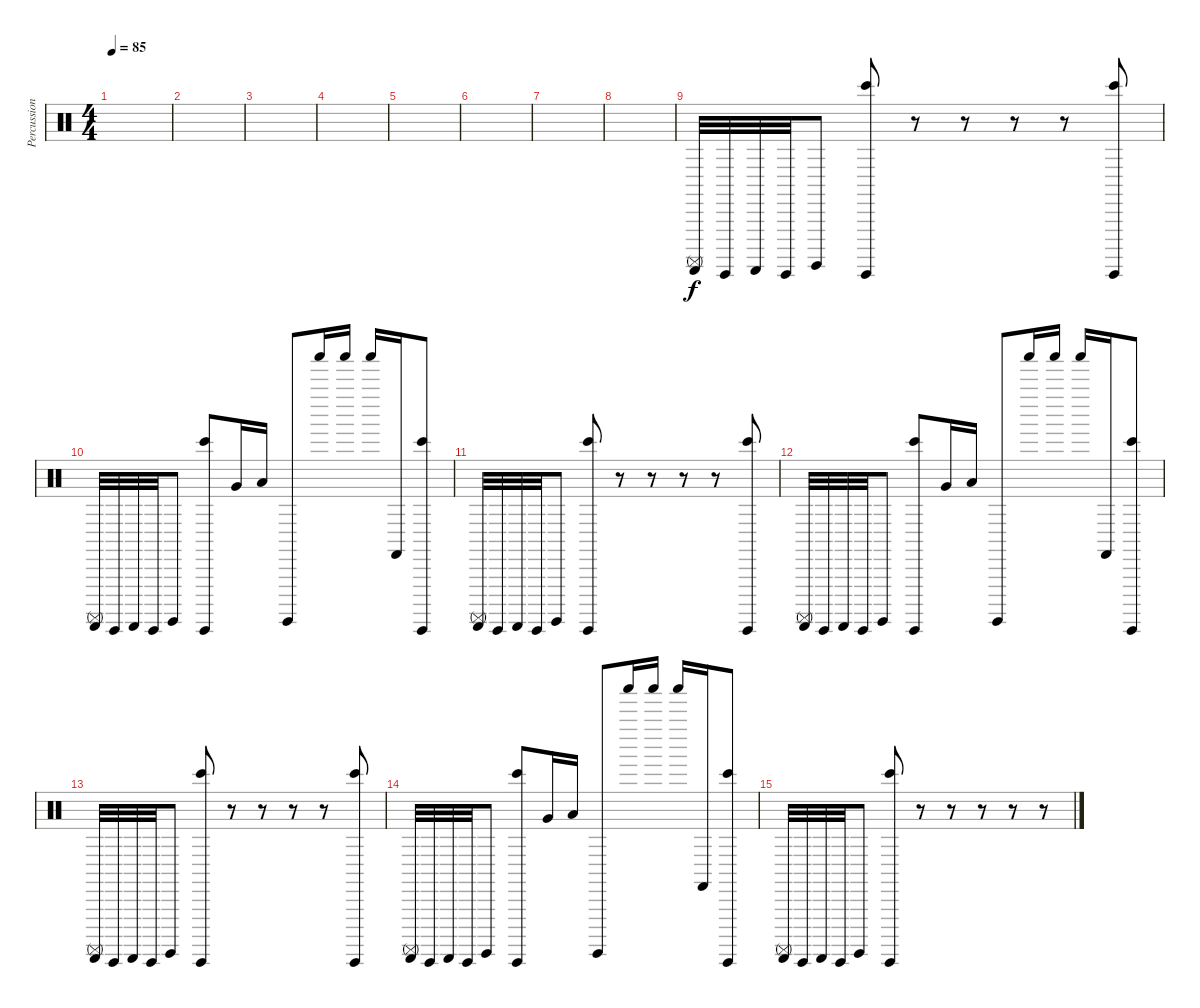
\track ("Percussion" "Percussion") {instrument percussion}
\staff {score}
\articulation defaults
\ts (4 4)
\tempo 85
\clef neutral
\ks c
|
|
|
|
|
|
|
|
("Guiro (scrap-return)" "Surdo (mute)").32 "Guiro (hit)".32 "Guiro (scrap-return)".32 "Guiro (hit)".32 "Surdo (hit)".8 ("Bongo High (hit)" "Guiro (hit)").8 r.8 r.8 r.8 r.8 ("Bongo High (hit)" "Guiro (hit)").8 |
("Guiro (scrap-return)" "Surdo (mute)").32 "Guiro (hit)".32 "Guiro (scrap-return)".32 "Guiro (hit)".32 "Surdo (hit)".8 ("Bongo High (hit)" "Guiro (hit)").8 "Very Low Tom (hit)".16 "Low Floor Tom (hit)".16 "Surdo (hit)".8 "Shaker (hit)".16 "Shaker (hit)".16 "Shaker (hit)".16 "Castanets (hit)".16 ("Bongo High (hit)" "Guiro (hit)").8 |
("Guiro (scrap-return)" "Surdo (mute)").32 "Guiro (hit)".32 "Guiro (scrap-return)".32 "Guiro (hit)".32 "Surdo (hit)".8 ("Bongo High (hit)" "Guiro (hit)").8 r.8 r.8 r.8 r.8 ("Bongo High (hit)" "Guiro (hit)").8 |
("Guiro (scrap-return)" "Surdo (mute)").32 "Guiro (hit)".32 "Guiro (scrap-return)".32 "Guiro (hit)".32 "Surdo (hit)".8 ("Bongo High (hit)" "Guiro (hit)").8 "Very Low Tom (hit)".16 "Low Floor Tom (hit)".16 "Surdo (hit)".8 "Shaker (hit)".16 "Shaker (hit)".16 "Shaker (hit)".16 "Castanets (hit)".16 ("Bongo High (hit)" "Guiro (hit)").8 |
("Guiro (scrap-return)" "Surdo (mute)").32 "Guiro (hit)".32 "Guiro (scrap-return)".32 "Guiro (hit)".32 "Surdo (hit)".8 ("Bongo High (hit)" "Guiro (hit)").8 r.8 r.8 r.8 r.8 ("Bongo High (hit)" "Guiro (hit)").8 |
("Guiro (scrap-return)" "Surdo (mute)").32 "Guiro (hit)".32 "Guiro (scrap-return)".32 "Guiro (hit)".32 "Surdo (hit)".8 ("Bongo High (hit)" "Guiro (hit)").8 "Very Low Tom (hit)".16 "Low Floor Tom (hit)".16 "Surdo (hit)".8 "Shaker (hit)".16 "Shaker (hit)".16 "Shaker (hit)".16 "Castanets (hit)".16 ("Bongo High (hit)" "Guiro (hit)").8 |
("Guiro (scrap-return)" "Surdo (mute)").32 "Guiro (hit)".32 "Guiro (scrap-return)".32 "Guiro (hit)".32 "Surdo (hit)".8 ("Bongo High (hit)" "Guiro (hit)").8 r.8 r.8 r.8 r.8 r.8
